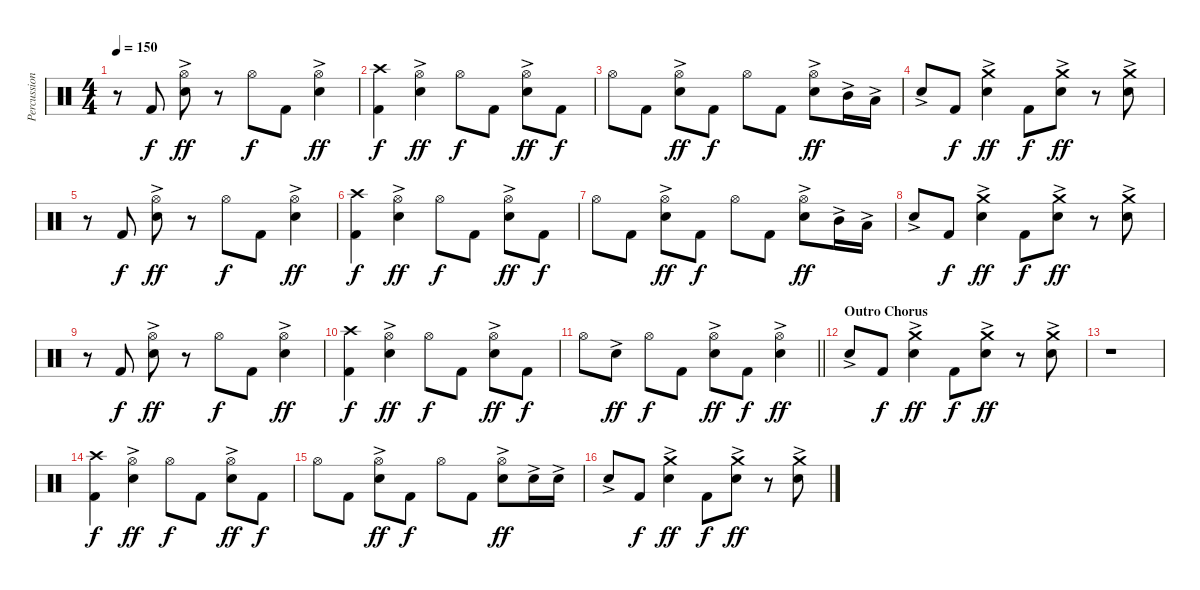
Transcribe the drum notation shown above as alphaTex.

\track ("Percussion" "Percussion") {instrument percussion}
\staff {score}
\articulation defaults
\ts (4 4)
\tempo 150
\clef neutral
\ks c
r.8{dy ff} "Kick (hit) 2".8{dy f} ("Hi-Hat (open)" "Electric Snare (hit)"{ac}).8{dy ff} r.8 "Hi-Hat (open)".8{dy f} "Kick (hit) 2".8 ("Hi-Hat (open)" "Electric Snare (hit)"{ac}).4{dy ff} |
("Crash high (hit)" "Kick (hit) 2").4{dy f} ("Hi-Hat (open)" "Electric Snare (hit)"{ac}).4{dy ff} "Hi-Hat (open)".8{dy f} "Kick (hit) 2".8 ("Hi-Hat (open)" "Electric Snare (hit)"{ac}).8{dy ff} "Kick (hit) 2".8{dy f} |
"Hi-Hat (open)".8 "Kick (hit) 2".8 ("Hi-Hat (open)" "Electric Snare (hit)"{ac}).8{dy ff} "Kick (hit) 2".8{dy f} "Hi-Hat (open)".8 "Kick (hit) 2".8 ("Hi-Hat (open)" "Electric Snare (hit)"{ac}).8{dy ff} "Mid Tom (hit)"{ac}.16 "Low Tom (hit)"{ac}.16 |
"Electric Snare (hit)"{ac}.8 "Kick (hit) 2".8{dy f} ("Crash medium (hit)" "Electric Snare (hit)"{ac}).4{dy ff} "Kick (hit) 2".8{dy f} ("Crash medium (hit)" "Electric Snare (hit)"{ac}).8{dy ff} r.8 ("Crash medium (hit)" "Electric Snare (hit)"{ac}).8 |
r.8 "Kick (hit) 2".8{dy f} ("Hi-Hat (open)" "Electric Snare (hit)"{ac}).8{dy ff} r.8 "Hi-Hat (open)".8{dy f} "Kick (hit) 2".8 ("Hi-Hat (open)" "Electric Snare (hit)"{ac}).4{dy ff} |
("Crash high (hit)" "Kick (hit) 2").4{dy f} ("Hi-Hat (open)" "Electric Snare (hit)"{ac}).4{dy ff} "Hi-Hat (open)".8{dy f} "Kick (hit) 2".8 ("Hi-Hat (open)" "Electric Snare (hit)"{ac}).8{dy ff} "Kick (hit) 2".8{dy f} |
"Hi-Hat (open)".8 "Kick (hit) 2".8 ("Hi-Hat (open)" "Electric Snare (hit)"{ac}).8{dy ff} "Kick (hit) 2".8{dy f} "Hi-Hat (open)".8 "Kick (hit) 2".8 ("Hi-Hat (open)" "Electric Snare (hit)"{ac}).8{dy ff} "Mid Tom (hit)"{ac}.16 "Low Tom (hit)"{ac}.16 |
"Electric Snare (hit)"{ac}.8 "Kick (hit) 2".8{dy f} ("Crash medium (hit)" "Electric Snare (hit)"{ac}).4{dy ff} "Kick (hit) 2".8{dy f} ("Crash medium (hit)" "Electric Snare (hit)"{ac}).8{dy ff} r.8 ("Crash medium (hit)" "Electric Snare (hit)"{ac}).8 |
r.8 "Kick (hit) 2".8{dy f} ("Hi-Hat (open)" "Electric Snare (hit)"{ac}).8{dy ff} r.8 "Hi-Hat (open)".8{dy f} "Kick (hit) 2".8 ("Hi-Hat (open)" "Electric Snare (hit)"{ac}).4{dy ff} |
("Crash high (hit)" "Kick (hit) 2").4{dy f} ("Hi-Hat (open)" "Electric Snare (hit)"{ac}).4{dy ff} "Hi-Hat (open)".8{dy f} "Kick (hit) 2".8 ("Hi-Hat (open)" "Electric Snare (hit)"{ac}).8{dy ff} "Kick (hit) 2".8{dy f} |
\barLineRight lightlight "Hi-Hat (open)".8 "Electric Snare (hit)"{ac}.8{dy ff} "Hi-Hat (open)".8{dy f} "Kick (hit) 2".8
("Hi-Hat (open)" "Electric Snare (hit)"{ac}).8{dy ff} "Kick (hit) 2".8{dy f} ("Hi-Hat (open)" "Electric Snare (hit)"{ac}).4{dy ff} |
\section ("" "Outro Chorus")
"Electric Snare (hit)"{ac}.8 "Kick (hit) 2".8{dy f} ("Crash medium (hit)" "Electric Snare (hit)"{ac}).4{dy ff} "Kick (hit) 2".8{dy f} ("Crash medium (hit)" "Electric Snare (hit)"{ac}).8{dy ff} r.8 ("Crash medium (hit)" "Electric Snare (hit)"{ac}).8 |
r.1 |
("Crash high (hit)" "Kick (hit) 2").4{dy f} ("Hi-Hat (open)" "Electric Snare (hit)"{ac}).4{dy ff} "Hi-Hat (open)".8{dy f} "Kick (hit) 2".8 ("Hi-Hat (open)" "Electric Snare (hit)"{ac}).8{dy ff} "Kick (hit) 2".8{dy f} |
"Hi-Hat (open)".8 "Kick (hit) 2".8 ("Hi-Hat (open)" "Electric Snare (hit)"{ac}).8{dy ff} "Kick (hit) 2".8{dy f} "Hi-Hat (open)".8 "Kick (hit) 2".8 ("Hi-Hat (open)" "Electric Snare (hit)"{ac}).8{dy ff} "Electric Snare (hit)"{ac}.16 "Electric Snare (hit)"{ac}.16 |
"Electric Snare (hit)"{ac}.8 "Kick (hit) 2".8{dy f} ("Crash medium (hit)" "Electric Snare (hit)"{ac}).4{dy ff} "Kick (hit) 2".8{dy f} ("Crash medium (hit)" "Electric Snare (hit)"{ac}).8{dy ff} r.8 ("Crash medium (hit)" "Electric Snare (hit)"{ac}).8
